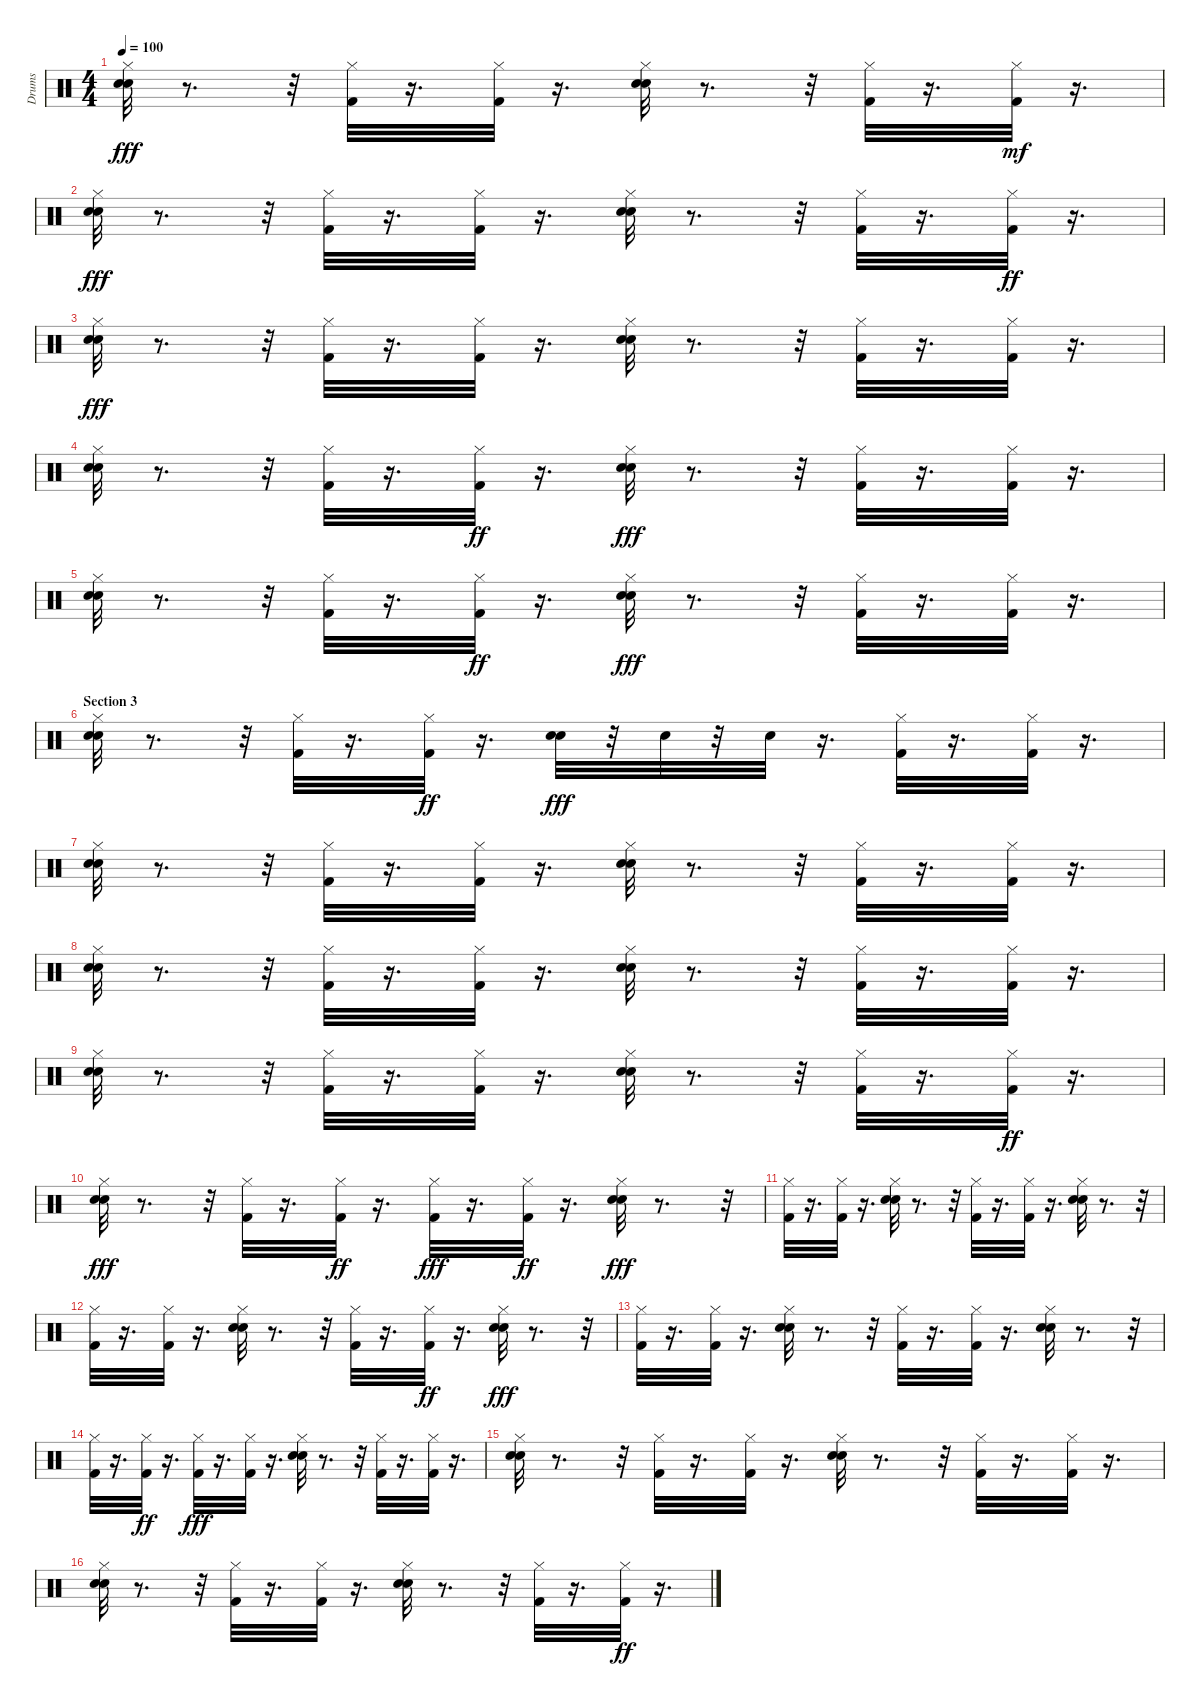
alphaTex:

\track ("Drums" "Drums") {instrument percussion}
\staff {score}
\articulation defaults
\ts (4 4)
\tempo 100
\clef neutral
\ks c
("Hi-Hat (closed)" "Snare (hit) 2" "Hand Clap (hit)").32{dy fff} r.8{d} r.32 ("Hi-Hat (closed)" "Kick (hit) 2").32 r.16{d} ("Kick (hit) 2" "Hi-Hat (closed)").32 r.16{d} ("Hand Clap (hit)" "Hi-Hat (closed)" "Snare (hit) 2").32 r.8{d} r.32 ("Hi-Hat (closed)" "Kick (hit) 2").32 r.16{d} ("Kick (hit) 2" "Hi-Hat (closed)").32{dy mf} r.16{d} |
("Snare (hit) 2" "Hand Clap (hit)" "Hi-Hat (closed)").32{dy fff} r.8{d} r.32 ("Hi-Hat (closed)" "Kick (hit) 2").32 r.16{d} ("Kick (hit) 2" "Hi-Hat (closed)").32 r.16{d} ("Hand Clap (hit)" "Hi-Hat (closed)" "Snare (hit) 2").32 r.8{d} r.32 ("Hi-Hat (closed)" "Kick (hit) 2").32 r.16{d} ("Kick (hit) 2" "Hi-Hat (closed)").32{dy ff} r.16{d} |
("Snare (hit) 2" "Hand Clap (hit)" "Hi-Hat (closed)").32{dy fff} r.8{d} r.32 ("Kick (hit) 2" "Hi-Hat (closed)").32 r.16{d} ("Hi-Hat (closed)" "Kick (hit) 2").32 r.16{d} ("Hand Clap (hit)" "Snare (hit) 2" "Hi-Hat (closed)").32 r.8{d} r.32 ("Hi-Hat (closed)" "Kick (hit) 2").32 r.16{d} ("Hi-Hat (closed)" "Kick (hit) 2").32 r.16{d} |
("Hi-Hat (closed)" "Snare (hit) 2" "Hand Clap (hit)").32 r.8{d} r.32 ("Hi-Hat (closed)" "Kick (hit) 2").32 r.16{d} ("Kick (hit) 2" "Hi-Hat (closed)").32{dy ff} r.16{d} ("Hi-Hat (closed)" "Snare (hit) 2" "Hand Clap (hit)").32{dy fff} r.8{d} r.32 ("Hi-Hat (closed)" "Kick (hit) 2").32 r.16{d} ("Hi-Hat (closed)" "Kick (hit) 2").32 r.16{d} |
("Hand Clap (hit)" "Snare (hit) 2" "Hi-Hat (closed)").32 r.8{d} r.32 ("Hi-Hat (closed)" "Kick (hit) 2").32 r.16{d} ("Kick (hit) 2" "Hi-Hat (closed)").32{dy ff} r.16{d} ("Snare (hit) 2" "Hand Clap (hit)" "Hi-Hat (closed)").32{dy fff} r.8{d} r.32 ("Hi-Hat (closed)" "Kick (hit) 2").32 r.16{d} ("Kick (hit) 2" "Hi-Hat (closed)").32 r.16{d} |
\section ("" "Section 3")
("Hand Clap (hit)" "Hi-Hat (closed)" "Snare (hit) 2").32 r.8{d} r.32 ("Hi-Hat (closed)" "Kick (hit) 2").32 r.16{d} ("Kick (hit) 2" "Hi-Hat (closed)").32{dy ff} r.16{d} ("Snare (hit) 2" "Hand Clap (hit)").32{dy fff} r.32 "Snare (hit) 2".32 r.32 "Snare (hit) 2".32 r.16{d} ("Kick (hit) 2" "Hi-Hat (closed)").32 r.16{d} ("Hi-Hat (closed)" "Kick (hit) 2").32 r.16{d} |
("Snare (hit) 2" "Hand Clap (hit)" "Hi-Hat (closed)").32 r.8{d} r.32 ("Hi-Hat (closed)" "Kick (hit) 2").32 r.16{d} ("Hi-Hat (closed)" "Kick (hit) 2").32 r.16{d} ("Hi-Hat (closed)" "Snare (hit) 2" "Hand Clap (hit)").32 r.8{d} r.32 ("Kick (hit) 2" "Hi-Hat (closed)").32 r.16{d} ("Hi-Hat (closed)" "Kick (hit) 2").32 r.16{d} |
("Snare (hit) 2" "Hand Clap (hit)" "Hi-Hat (closed)").32 r.8{d} r.32 ("Hi-Hat (closed)" "Kick (hit) 2").32 r.16{d} ("Hi-Hat (closed)" "Kick (hit) 2").32 r.16{d} ("Hi-Hat (closed)" "Hand Clap (hit)" "Snare (hit) 2").32 r.8{d} r.32 ("Kick (hit) 2" "Hi-Hat (closed)").32 r.16{d} ("Hi-Hat (closed)" "Kick (hit) 2").32 r.16{d} |
("Snare (hit) 2" "Hi-Hat (closed)" "Hand Clap (hit)").32 r.8{d} r.32 ("Hi-Hat (closed)" "Kick (hit) 2").32 r.16{d} ("Hi-Hat (closed)" "Kick (hit) 2").32 r.16{d} ("Hand Clap (hit)" "Snare (hit) 2" "Hi-Hat (closed)").32 r.8{d} r.32 ("Hi-Hat (closed)" "Kick (hit) 2").32 r.16{d} ("Kick (hit) 2" "Hi-Hat (closed)").32{dy ff} r.16{d} |
("Hi-Hat (closed)" "Snare (hit) 2" "Hand Clap (hit)").32{dy fff} r.8{d} r.32 ("Hi-Hat (closed)" "Kick (hit) 2").32 r.16{d} ("Hi-Hat (closed)" "Kick (hit) 2").32{dy ff} r.16{d} ("Hi-Hat (closed)" "Kick (hit) 2").32{dy fff} r.16{d} ("Kick (hit) 2" "Hi-Hat (closed)").32{dy ff} r.16{d} ("Snare (hit) 2" "Hi-Hat (closed)" "Hand Clap (hit)").32{dy fff} r.8{d} r.32 |
("Hi-Hat (closed)" "Kick (hit) 2").32 r.16{d} ("Hi-Hat (closed)" "Kick (hit) 2").32 r.16{d} ("Hi-Hat (closed)" "Hand Clap (hit)" "Snare (hit) 2").32 r.8{d} r.32 ("Kick (hit) 2" "Hi-Hat (closed)").32 r.16{d} ("Hi-Hat (closed)" "Kick (hit) 2").32 r.16{d} ("Hand Clap (hit)" "Snare (hit) 2" "Hi-Hat (closed)").32 r.8{d} r.32 |
("Hi-Hat (closed)" "Kick (hit) 2").32 r.16{d} ("Hi-Hat (closed)" "Kick (hit) 2").32 r.16{d} ("Hand Clap (hit)" "Snare (hit) 2" "Hi-Hat (closed)").32 r.8{d} r.32 ("Kick (hit) 2" "Hi-Hat (closed)").32 r.16{d} ("Kick (hit) 2" "Hi-Hat (closed)").32{dy ff} r.16{d} ("Hand Clap (hit)" "Snare (hit) 2" "Hi-Hat (closed)").32{dy fff} r.8{d} r.32 |
("Hi-Hat (closed)" "Kick (hit) 2").32 r.16{d} ("Hi-Hat (closed)" "Kick (hit) 2").32 r.16{d} ("Hi-Hat (closed)" "Hand Clap (hit)" "Snare (hit) 2").32 r.8{d} r.32 ("Hi-Hat (closed)" "Kick (hit) 2").32 r.16{d} ("Hi-Hat (closed)" "Kick (hit) 2").32 r.16{d} ("Hi-Hat (closed)" "Snare (hit) 2" "Hand Clap (hit)").32 r.8{d} r.32 |
("Kick (hit) 2" "Hi-Hat (closed)").32 r.16{d} ("Hi-Hat (closed)" "Kick (hit) 2").32{dy ff} r.16{d} ("Hi-Hat (closed)" "Kick (hit) 2").32{dy fff} r.16{d} ("Hi-Hat (closed)" "Kick (hit) 2").32 r.16{d} ("Hi-Hat (closed)" "Hand Clap (hit)" "Snare (hit) 2").32 r.8{d} r.32 ("Kick (hit) 2" "Hi-Hat (closed)").32 r.16{d} ("Kick (hit) 2" "Hi-Hat (closed)").32 r.16{d} |
("Hand Clap (hit)" "Hi-Hat (closed)" "Snare (hit) 2").32 r.8{d} r.32 ("Kick (hit) 2" "Hi-Hat (closed)").32 r.16{d} ("Kick (hit) 2" "Hi-Hat (closed)").32 r.16{d} ("Hand Clap (hit)" "Hi-Hat (closed)" "Snare (hit) 2").32 r.8{d} r.32 ("Kick (hit) 2" "Hi-Hat (closed)").32 r.16{d} ("Hi-Hat (closed)" "Kick (hit) 2").32 r.16{d} |
("Hi-Hat (closed)" "Snare (hit) 2" "Hand Clap (hit)").32 r.8{d} r.32 ("Hi-Hat (closed)" "Kick (hit) 2").32 r.16{d} ("Hi-Hat (closed)" "Kick (hit) 2").32 r.16{d} ("Hand Clap (hit)" "Hi-Hat (closed)" "Snare (hit) 2").32 r.8{d} r.32 ("Hi-Hat (closed)" "Kick (hit) 2").32 r.16{d} ("Kick (hit) 2" "Hi-Hat (closed)").32{dy ff} r.16{d}
